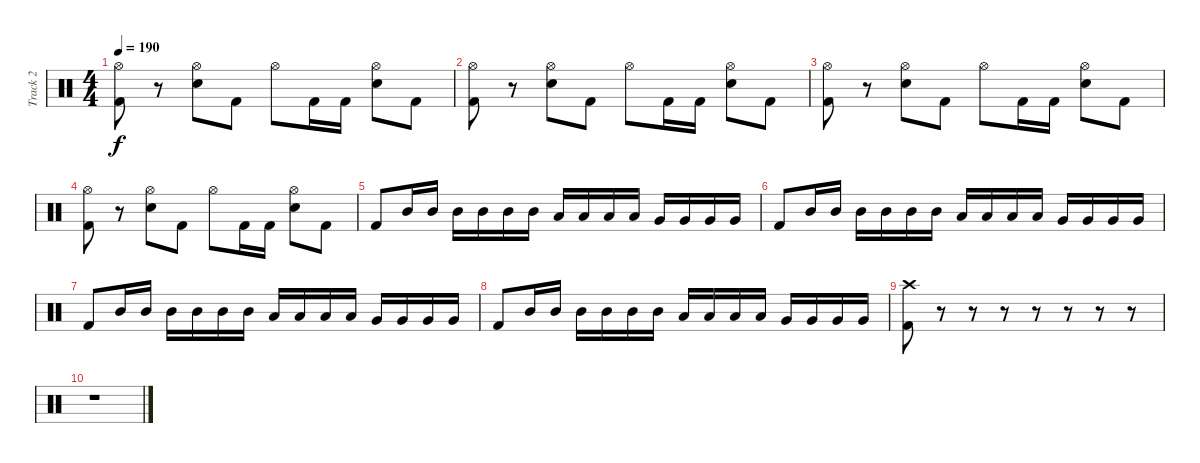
\track ("Track 2" "Track 2") {instrument percussion}
\staff {score}
\articulation defaults
\ts (4 4)
\tempo 190
\clef neutral
\ks c
("Hi-Hat (open)" "Kick (hit) 2").8{dy f} r.8 ("Hi-Hat (open)" "Snare (hit) 2").8 "Kick (hit) 2".8 "Hi-Hat (open)".8 "Kick (hit) 2".16 "Kick (hit) 2".16 ("Hi-Hat (open)" "Snare (hit) 2").8 "Kick (hit) 2".8 |
("Hi-Hat (open)" "Kick (hit) 2").8 r.8 ("Hi-Hat (open)" "Snare (hit) 2").8 "Kick (hit) 2".8 "Hi-Hat (open)".8 "Kick (hit) 2".16 "Kick (hit) 2".16 ("Hi-Hat (open)" "Snare (hit) 2").8 "Kick (hit) 2".8 |
("Hi-Hat (open)" "Kick (hit) 2").8 r.8 ("Hi-Hat (open)" "Snare (hit) 2").8 "Kick (hit) 2".8 "Hi-Hat (open)".8 "Kick (hit) 2".16 "Kick (hit) 2".16 ("Hi-Hat (open)" "Snare (hit) 2").8 "Kick (hit) 2".8 |
("Hi-Hat (open)" "Kick (hit) 2").8 r.8 ("Hi-Hat (open)" "Snare (hit) 2").8 "Kick (hit) 2".8 "Hi-Hat (open)".8 "Kick (hit) 2".16 "Kick (hit) 2".16 ("Hi-Hat (open)" "Snare (hit) 2").8 "Kick (hit) 2".8 |
"Kick (hit) 2".8 "Mid Tom (hit)".16 "Mid Tom (hit)".16 "Mid Tom (hit)".16 "Mid Tom (hit)".16 "Mid Tom (hit)".16 "Mid Tom (hit)".16 "Low Tom (hit)".16 "Low Tom (hit)".16 "Low Tom (hit)".16 "Low Tom (hit)".16 "Very Low Tom (hit)".16 "Very Low Tom (hit)".16 "Very Low Tom (hit)".16 "Very Low Tom (hit)".16 |
"Kick (hit) 2".8 "Mid Tom (hit)".16 "Mid Tom (hit)".16 "Mid Tom (hit)".16 "Mid Tom (hit)".16 "Mid Tom (hit)".16 "Mid Tom (hit)".16 "Low Tom (hit)".16 "Low Tom (hit)".16 "Low Tom (hit)".16 "Low Tom (hit)".16 "Very Low Tom (hit)".16 "Very Low Tom (hit)".16 "Very Low Tom (hit)".16 "Very Low Tom (hit)".16 |
"Kick (hit) 2".8 "Mid Tom (hit)".16 "Mid Tom (hit)".16 "Mid Tom (hit)".16 "Mid Tom (hit)".16 "Mid Tom (hit)".16 "Mid Tom (hit)".16 "Low Tom (hit)".16 "Low Tom (hit)".16 "Low Tom (hit)".16 "Low Tom (hit)".16 "Very Low Tom (hit)".16 "Very Low Tom (hit)".16 "Very Low Tom (hit)".16 "Very Low Tom (hit)".16 |
"Kick (hit) 2".8 "Mid Tom (hit)".16 "Mid Tom (hit)".16 "Mid Tom (hit)".16 "Mid Tom (hit)".16 "Mid Tom (hit)".16 "Mid Tom (hit)".16 "Low Tom (hit)".16 "Low Tom (hit)".16 "Low Tom (hit)".16 "Low Tom (hit)".16 "Very Low Tom (hit)".16 "Very Low Tom (hit)".16 "Very Low Tom (hit)".16 "Very Low Tom (hit)".16 |
("Crash high (hit)" "Kick (hit) 2").8 r.8 r.8 r.8 r.8 r.8 r.8 r.8 |
r.1
